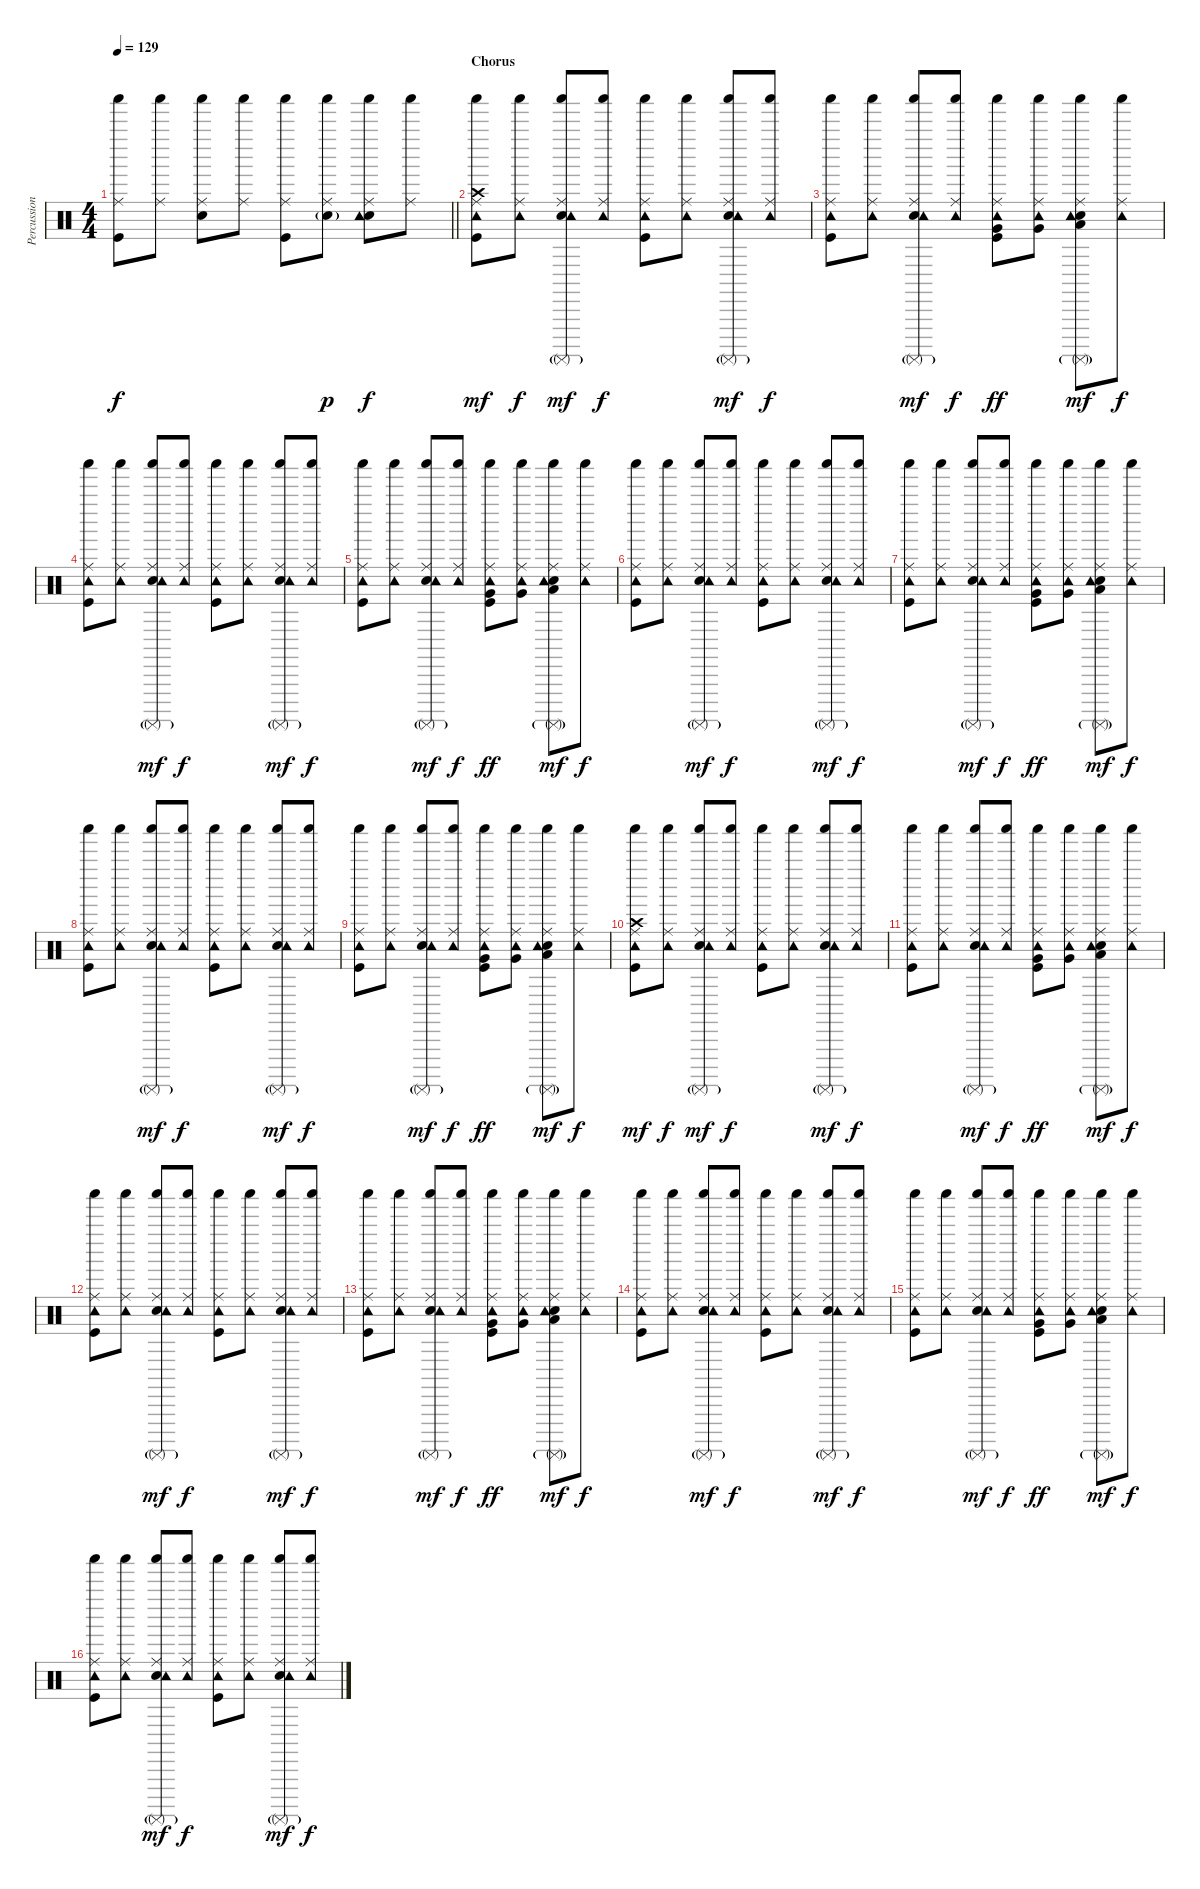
\track ("Percussion" "Percussion") {instrument percussion}
\staff {score}
\articulation defaults
\ts (4 4)
\tempo 129
\clef neutral
\barLineRight lightlight
\ks c
("Shaker (hit)" "Ride (middle)" "Kick (hit)").8{dy f} ("Shaker (hit)" "Ride (middle)").8 ("Shaker (hit)" "Ride (middle)" "Snare (hit) 2").8 ("Shaker (hit)" "Ride (middle)").8 ("Shaker (hit)" "Ride (middle)" "Kick (hit)").8 ("Shaker (hit)" "Ride (middle)" "Electric Snare (hit)"{g}).8{dy p} ("Shaker (hit)" "Ride (middle)" "Snare (hit) 2" "Tambourine (hit)").8{dy f} ("Shaker (hit)" "Ride (middle)").8 |
\section ("" "Chorus")
("Crash high (hit)" "Shaker (hit)" "Ride (middle)" "Tambourine (hit)" "Kick (hit)").8{dy mf} ("Shaker (hit)" "Ride (middle)" "Tambourine (hit)").8{dy f} ("Shaker (hit)" "Ride (middle)" "Snare (hit) 2" "Tambourine (hit)" "Surdo (mute)"{g}).8{dy mf} ("Shaker (hit)" "Ride (middle)" "Tambourine (hit)").8{dy f} ("Shaker (hit)" "Ride (middle)" "Tambourine (hit)" "Kick (hit)").8 ("Shaker (hit)" "Ride (middle)" "Tambourine (hit)").8 ("Shaker (hit)" "Ride (middle)" "Snare (hit) 2" "Tambourine (hit)" "Surdo (mute)"{g}).8{dy mf} ("Shaker (hit)" "Ride (middle)" "Tambourine (hit)").8{dy f} |
("Shaker (hit)" "Ride (middle)" "Tambourine (hit)" "Kick (hit)").8 ("Shaker (hit)" "Ride (middle)" "Tambourine (hit)").8 ("Shaker (hit)" "Ride (middle)" "Snare (hit) 2" "Tambourine (hit)" "Surdo (mute)"{g}).8{dy mf} ("Shaker (hit)" "Ride (middle)" "Tambourine (hit)").8{dy f} ("Very Low Tom (hit)" "Shaker (hit)" "Ride (middle)" "Tambourine (hit)" "Kick (hit)").8{dy ff} ("Very Low Tom (hit)" "Shaker (hit)" "Ride (middle)" "Tambourine (hit)").8 ("Low Floor Tom (hit)" "Shaker (hit)" "Ride (middle)" "Snare (hit) 2" "Tambourine (hit)" "Surdo (mute)"{g}).8{dy mf} ("Shaker (hit)" "Ride (middle)" "Tambourine (hit)").8{dy f} |
("Shaker (hit)" "Ride (middle)" "Tambourine (hit)" "Kick (hit)").8 ("Shaker (hit)" "Ride (middle)" "Tambourine (hit)").8 ("Shaker (hit)" "Ride (middle)" "Snare (hit) 2" "Tambourine (hit)" "Surdo (mute)"{g}).8{dy mf} ("Shaker (hit)" "Ride (middle)" "Tambourine (hit)").8{dy f} ("Shaker (hit)" "Ride (middle)" "Tambourine (hit)" "Kick (hit)").8 ("Shaker (hit)" "Ride (middle)" "Tambourine (hit)").8 ("Shaker (hit)" "Ride (middle)" "Snare (hit) 2" "Tambourine (hit)" "Surdo (mute)"{g}).8{dy mf} ("Shaker (hit)" "Ride (middle)" "Tambourine (hit)").8{dy f} |
("Shaker (hit)" "Ride (middle)" "Tambourine (hit)" "Kick (hit)").8 ("Shaker (hit)" "Ride (middle)" "Tambourine (hit)").8 ("Shaker (hit)" "Ride (middle)" "Snare (hit) 2" "Tambourine (hit)" "Surdo (mute)"{g}).8{dy mf} ("Shaker (hit)" "Ride (middle)" "Tambourine (hit)").8{dy f} ("Very Low Tom (hit)" "Shaker (hit)" "Ride (middle)" "Tambourine (hit)" "Kick (hit)").8{dy ff} ("Very Low Tom (hit)" "Shaker (hit)" "Ride (middle)" "Tambourine (hit)").8 ("Low Floor Tom (hit)" "Shaker (hit)" "Ride (middle)" "Snare (hit) 2" "Tambourine (hit)" "Surdo (mute)"{g}).8{dy mf} ("Shaker (hit)" "Ride (middle)" "Tambourine (hit)").8{dy f} |
("Shaker (hit)" "Ride (middle)" "Tambourine (hit)" "Kick (hit)").8 ("Shaker (hit)" "Ride (middle)" "Tambourine (hit)").8 ("Shaker (hit)" "Ride (middle)" "Snare (hit) 2" "Tambourine (hit)" "Surdo (mute)"{g}).8{dy mf} ("Shaker (hit)" "Ride (middle)" "Tambourine (hit)").8{dy f} ("Shaker (hit)" "Ride (middle)" "Tambourine (hit)" "Kick (hit)").8 ("Shaker (hit)" "Ride (middle)" "Tambourine (hit)").8 ("Shaker (hit)" "Ride (middle)" "Snare (hit) 2" "Tambourine (hit)" "Surdo (mute)"{g}).8{dy mf} ("Shaker (hit)" "Ride (middle)" "Tambourine (hit)").8{dy f} |
("Shaker (hit)" "Ride (middle)" "Tambourine (hit)" "Kick (hit)").8 ("Shaker (hit)" "Ride (middle)" "Tambourine (hit)").8 ("Shaker (hit)" "Ride (middle)" "Snare (hit) 2" "Tambourine (hit)" "Surdo (mute)"{g}).8{dy mf} ("Shaker (hit)" "Ride (middle)" "Tambourine (hit)").8{dy f} ("Very Low Tom (hit)" "Shaker (hit)" "Ride (middle)" "Tambourine (hit)" "Kick (hit)").8{dy ff} ("Very Low Tom (hit)" "Shaker (hit)" "Ride (middle)" "Tambourine (hit)").8 ("Low Floor Tom (hit)" "Shaker (hit)" "Ride (middle)" "Snare (hit) 2" "Tambourine (hit)" "Surdo (mute)"{g}).8{dy mf} ("Shaker (hit)" "Ride (middle)" "Tambourine (hit)").8{dy f} |
("Shaker (hit)" "Ride (middle)" "Tambourine (hit)" "Kick (hit)").8 ("Shaker (hit)" "Ride (middle)" "Tambourine (hit)").8 ("Shaker (hit)" "Ride (middle)" "Snare (hit) 2" "Tambourine (hit)" "Surdo (mute)"{g}).8{dy mf} ("Shaker (hit)" "Ride (middle)" "Tambourine (hit)").8{dy f} ("Shaker (hit)" "Ride (middle)" "Tambourine (hit)" "Kick (hit)").8 ("Shaker (hit)" "Ride (middle)" "Tambourine (hit)").8 ("Shaker (hit)" "Ride (middle)" "Snare (hit) 2" "Tambourine (hit)" "Surdo (mute)"{g}).8{dy mf} ("Shaker (hit)" "Ride (middle)" "Tambourine (hit)").8{dy f} |
("Shaker (hit)" "Ride (middle)" "Tambourine (hit)" "Kick (hit)").8 ("Shaker (hit)" "Ride (middle)" "Tambourine (hit)").8 ("Shaker (hit)" "Ride (middle)" "Snare (hit) 2" "Tambourine (hit)" "Surdo (mute)"{g}).8{dy mf} ("Shaker (hit)" "Ride (middle)" "Tambourine (hit)").8{dy f} ("Very Low Tom (hit)" "Shaker (hit)" "Ride (middle)" "Tambourine (hit)" "Kick (hit)").8{dy ff} ("Very Low Tom (hit)" "Shaker (hit)" "Ride (middle)" "Tambourine (hit)").8 ("Low Floor Tom (hit)" "Shaker (hit)" "Ride (middle)" "Snare (hit) 2" "Tambourine (hit)" "Surdo (mute)"{g}).8{dy mf} ("Shaker (hit)" "Ride (middle)" "Tambourine (hit)").8{dy f} |
("Crash high (hit)" "Shaker (hit)" "Ride (middle)" "Tambourine (hit)" "Kick (hit)").8{dy mf} ("Shaker (hit)" "Ride (middle)" "Tambourine (hit)").8{dy f} ("Shaker (hit)" "Ride (middle)" "Snare (hit) 2" "Tambourine (hit)" "Surdo (mute)"{g}).8{dy mf} ("Shaker (hit)" "Ride (middle)" "Tambourine (hit)").8{dy f} ("Shaker (hit)" "Ride (middle)" "Tambourine (hit)" "Kick (hit)").8 ("Shaker (hit)" "Ride (middle)" "Tambourine (hit)").8 ("Shaker (hit)" "Ride (middle)" "Snare (hit) 2" "Tambourine (hit)" "Surdo (mute)"{g}).8{dy mf} ("Shaker (hit)" "Ride (middle)" "Tambourine (hit)").8{dy f} |
("Shaker (hit)" "Ride (middle)" "Tambourine (hit)" "Kick (hit)").8 ("Shaker (hit)" "Ride (middle)" "Tambourine (hit)").8 ("Shaker (hit)" "Ride (middle)" "Snare (hit) 2" "Tambourine (hit)" "Surdo (mute)"{g}).8{dy mf} ("Shaker (hit)" "Ride (middle)" "Tambourine (hit)").8{dy f} ("Very Low Tom (hit)" "Shaker (hit)" "Ride (middle)" "Tambourine (hit)" "Kick (hit)").8{dy ff} ("Very Low Tom (hit)" "Shaker (hit)" "Ride (middle)" "Tambourine (hit)").8 ("Low Floor Tom (hit)" "Shaker (hit)" "Ride (middle)" "Snare (hit) 2" "Tambourine (hit)" "Surdo (mute)"{g}).8{dy mf} ("Shaker (hit)" "Ride (middle)" "Tambourine (hit)").8{dy f} |
("Shaker (hit)" "Ride (middle)" "Tambourine (hit)" "Kick (hit)").8 ("Shaker (hit)" "Ride (middle)" "Tambourine (hit)").8 ("Shaker (hit)" "Ride (middle)" "Snare (hit) 2" "Tambourine (hit)" "Surdo (mute)"{g}).8{dy mf} ("Shaker (hit)" "Ride (middle)" "Tambourine (hit)").8{dy f} ("Shaker (hit)" "Ride (middle)" "Tambourine (hit)" "Kick (hit)").8 ("Shaker (hit)" "Ride (middle)" "Tambourine (hit)").8 ("Shaker (hit)" "Ride (middle)" "Snare (hit) 2" "Tambourine (hit)" "Surdo (mute)"{g}).8{dy mf} ("Shaker (hit)" "Ride (middle)" "Tambourine (hit)").8{dy f} |
("Shaker (hit)" "Ride (middle)" "Tambourine (hit)" "Kick (hit)").8 ("Shaker (hit)" "Ride (middle)" "Tambourine (hit)").8 ("Shaker (hit)" "Ride (middle)" "Snare (hit) 2" "Tambourine (hit)" "Surdo (mute)"{g}).8{dy mf} ("Shaker (hit)" "Ride (middle)" "Tambourine (hit)").8{dy f} ("Very Low Tom (hit)" "Shaker (hit)" "Ride (middle)" "Tambourine (hit)" "Kick (hit)").8{dy ff} ("Very Low Tom (hit)" "Shaker (hit)" "Ride (middle)" "Tambourine (hit)").8 ("Low Floor Tom (hit)" "Shaker (hit)" "Ride (middle)" "Snare (hit) 2" "Tambourine (hit)" "Surdo (mute)"{g}).8{dy mf} ("Shaker (hit)" "Ride (middle)" "Tambourine (hit)").8{dy f} |
("Shaker (hit)" "Ride (middle)" "Tambourine (hit)" "Kick (hit)").8 ("Shaker (hit)" "Ride (middle)" "Tambourine (hit)").8 ("Shaker (hit)" "Ride (middle)" "Snare (hit) 2" "Tambourine (hit)" "Surdo (mute)"{g}).8{dy mf} ("Shaker (hit)" "Ride (middle)" "Tambourine (hit)").8{dy f} ("Shaker (hit)" "Ride (middle)" "Tambourine (hit)" "Kick (hit)").8 ("Shaker (hit)" "Ride (middle)" "Tambourine (hit)").8 ("Shaker (hit)" "Ride (middle)" "Snare (hit) 2" "Tambourine (hit)" "Surdo (mute)"{g}).8{dy mf} ("Shaker (hit)" "Ride (middle)" "Tambourine (hit)").8{dy f} |
("Shaker (hit)" "Ride (middle)" "Tambourine (hit)" "Kick (hit)").8 ("Shaker (hit)" "Ride (middle)" "Tambourine (hit)").8 ("Shaker (hit)" "Ride (middle)" "Snare (hit) 2" "Tambourine (hit)" "Surdo (mute)"{g}).8{dy mf} ("Shaker (hit)" "Ride (middle)" "Tambourine (hit)").8{dy f} ("Very Low Tom (hit)" "Shaker (hit)" "Ride (middle)" "Tambourine (hit)" "Kick (hit)").8{dy ff} ("Very Low Tom (hit)" "Shaker (hit)" "Ride (middle)" "Tambourine (hit)").8 ("Low Floor Tom (hit)" "Shaker (hit)" "Ride (middle)" "Snare (hit) 2" "Tambourine (hit)" "Surdo (mute)"{g}).8{dy mf} ("Shaker (hit)" "Ride (middle)" "Tambourine (hit)").8{dy f} |
("Shaker (hit)" "Ride (middle)" "Tambourine (hit)" "Kick (hit)").8 ("Shaker (hit)" "Ride (middle)" "Tambourine (hit)").8 ("Shaker (hit)" "Ride (middle)" "Snare (hit) 2" "Tambourine (hit)" "Surdo (mute)"{g}).8{dy mf} ("Shaker (hit)" "Ride (middle)" "Tambourine (hit)").8{dy f} ("Shaker (hit)" "Ride (middle)" "Tambourine (hit)" "Kick (hit)").8 ("Shaker (hit)" "Ride (middle)" "Tambourine (hit)").8 ("Shaker (hit)" "Ride (middle)" "Snare (hit) 2" "Tambourine (hit)" "Surdo (mute)"{g}).8{dy mf} ("Shaker (hit)" "Ride (middle)" "Tambourine (hit)").8{dy f}
